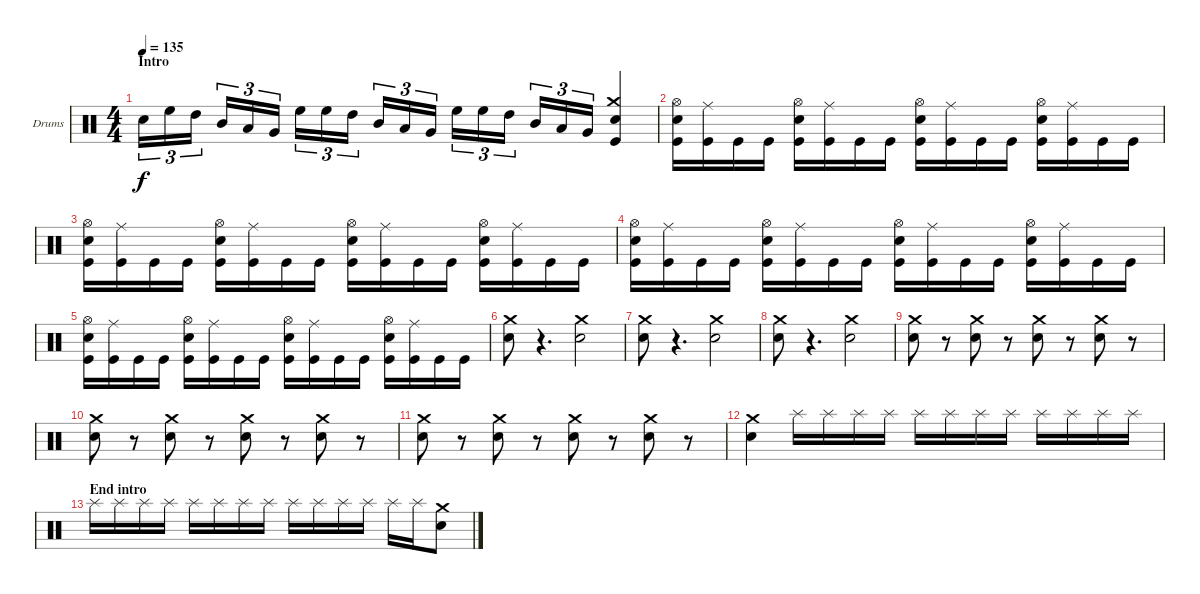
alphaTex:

\bracketExtendMode groupsimilarinstruments
\firstSystemTrackNameOrientation horizontal
\otherSystemsTrackNameOrientation horizontal
\track ("Drumkit" "Drums") {instrument percussion}
\staff {score}
\articulation defaults
\ts (4 4)
\section ("" "Intro")
\tempo 135
\clef neutral
\ks c "Snare (hit) 2".16{tu (3 2) dy f} "High Floor Tom (hit)".16{tu (3 2)} "High Tom (hit)".16{tu (3 2)} "Mid Tom (hit)".16{tu (3 2)} "Low Tom (hit)".16{tu (3 2)} "Very Low Tom (hit)".16{tu (3 2)} "High Floor Tom (hit)".16{tu (3 2)} "High Floor Tom (hit)".16{tu (3 2)} "High Tom (hit)".16{tu (3 2)} "Mid Tom (hit)".16{tu (3 2)} "Low Tom (hit)".16{tu (3 2)} "Very Low Tom (hit)".16{tu (3 2)} "High Floor Tom (hit)".16{tu (3 2)} "High Floor Tom (hit)".16{tu (3 2)} "High Tom (hit)".16{tu (3 2)} "Mid Tom (hit)".16{tu (3 2)} "Low Tom (hit)".16{tu (3 2)} "Very Low Tom (hit)".16{tu (3 2)}
("Crash medium (hit)" "Kick (hit)" "Snare (hit) 2").4 |
("Kick (hit)" "Hi-Hat (open)" "Snare (hit) 2").16 ("Ride (middle)" "Kick (hit)").16 "Kick (hit)".16 "Kick (hit)".16 ("Hi-Hat (open)" "Snare (hit) 2" "Kick (hit)").16 ("Ride (middle)" "Kick (hit)").16 "Kick (hit)".16 "Kick (hit)".16 ("Kick (hit)" "Hi-Hat (open)" "Snare (hit) 2").16 ("Ride (middle)" "Kick (hit)").16 "Kick (hit)".16 "Kick (hit)".16 ("Hi-Hat (open)" "Snare (hit) 2" "Kick (hit)").16 ("Ride (middle)" "Kick (hit)").16 "Kick (hit)".16 "Kick (hit)".16 |
("Kick (hit)" "Hi-Hat (open)" "Snare (hit) 2").16 ("Ride (middle)" "Kick (hit)").16 "Kick (hit)".16 "Kick (hit)".16 ("Hi-Hat (open)" "Snare (hit) 2" "Kick (hit)").16 ("Ride (middle)" "Kick (hit)").16 "Kick (hit)".16 "Kick (hit)".16 ("Kick (hit)" "Hi-Hat (open)" "Snare (hit) 2").16 ("Ride (middle)" "Kick (hit)").16 "Kick (hit)".16 "Kick (hit)".16 ("Hi-Hat (open)" "Snare (hit) 2" "Kick (hit)").16 ("Ride (middle)" "Kick (hit)").16 "Kick (hit)".16 "Kick (hit)".16 |
("Kick (hit)" "Hi-Hat (open)" "Snare (hit) 2").16 ("Ride (middle)" "Kick (hit)").16 "Kick (hit)".16 "Kick (hit)".16 ("Hi-Hat (open)" "Snare (hit) 2" "Kick (hit)").16 ("Ride (middle)" "Kick (hit)").16 "Kick (hit)".16 "Kick (hit)".16 ("Kick (hit)" "Hi-Hat (open)" "Snare (hit) 2").16 ("Ride (middle)" "Kick (hit)").16 "Kick (hit)".16 "Kick (hit)".16 ("Hi-Hat (open)" "Snare (hit) 2" "Kick (hit)").16 ("Ride (middle)" "Kick (hit)").16 "Kick (hit)".16 "Kick (hit)".16 |
("Kick (hit)" "Hi-Hat (open)" "Snare (hit) 2").16 ("Ride (middle)" "Kick (hit)").16 "Kick (hit)".16 "Kick (hit)".16 ("Hi-Hat (open)" "Snare (hit) 2" "Kick (hit)").16 ("Ride (middle)" "Kick (hit)").16 "Kick (hit)".16 "Kick (hit)".16 ("Kick (hit)" "Hi-Hat (open)" "Snare (hit) 2").16 ("Ride (middle)" "Kick (hit)").16 "Kick (hit)".16 "Kick (hit)".16 ("Hi-Hat (open)" "Snare (hit) 2" "Kick (hit)").16 ("Ride (middle)" "Kick (hit)").16 "Kick (hit)".16 "Kick (hit)".16 |
("Crash medium (hit)" "Snare (hit) 2").8 r.4{d} ("Crash medium (hit)" "Snare (hit) 2").2 |
("Crash medium (hit)" "Snare (hit) 2").8 r.4{d} ("Crash medium (hit)" "Snare (hit) 2").2 |
("Crash medium (hit)" "Snare (hit) 2").8 r.4{d} ("Crash medium (hit)" "Snare (hit) 2").2 |
("Crash medium (hit)" "Snare (hit) 2").8 r.8 ("Crash medium (hit)" "Snare (hit) 2").8 r.8 ("Crash medium (hit)" "Snare (hit) 2").8 r.8 ("Crash medium (hit)" "Snare (hit) 2").8 r.8 |
("Crash medium (hit)" "Snare (hit) 2").8 r.8 ("Crash medium (hit)" "Snare (hit) 2").8 r.8 ("Crash medium (hit)" "Snare (hit) 2").8 r.8 ("Crash medium (hit)" "Snare (hit) 2").8 r.8 |
("Crash medium (hit)" "Snare (hit) 2").8 r.8 ("Crash medium (hit)" "Snare (hit) 2").8 r.8 ("Crash medium (hit)" "Snare (hit) 2").8 r.8 ("Crash medium (hit)" "Snare (hit) 2").8 r.8 |
("Crash medium (hit)" "Snare (hit) 2").4 "Splash (hit)".16 "Splash (hit)".16 "Splash (hit)".16 "Splash (hit)".16 "Splash (hit)".16 "Splash (hit)".16 "Splash (hit)".16 "Splash (hit)".16 "Splash (hit)".16 "Splash (hit)".16 "Splash (hit)".16 "Splash (hit)".16 |
\section ("" "End intro")
"Splash (hit)".16 "Splash (hit)".16 "Splash (hit)".16 "Splash (hit)".16 "Splash (hit)".16 "Splash (hit)".16 "Splash (hit)".16 "Splash (hit)".16 "Splash (hit)".16 "Splash (hit)".16 "Splash (hit)".16 "Splash (hit)".16 "Splash (hit)".16 "Splash (hit)".16 ("Crash medium (hit)" "Snare (hit) 2").8
